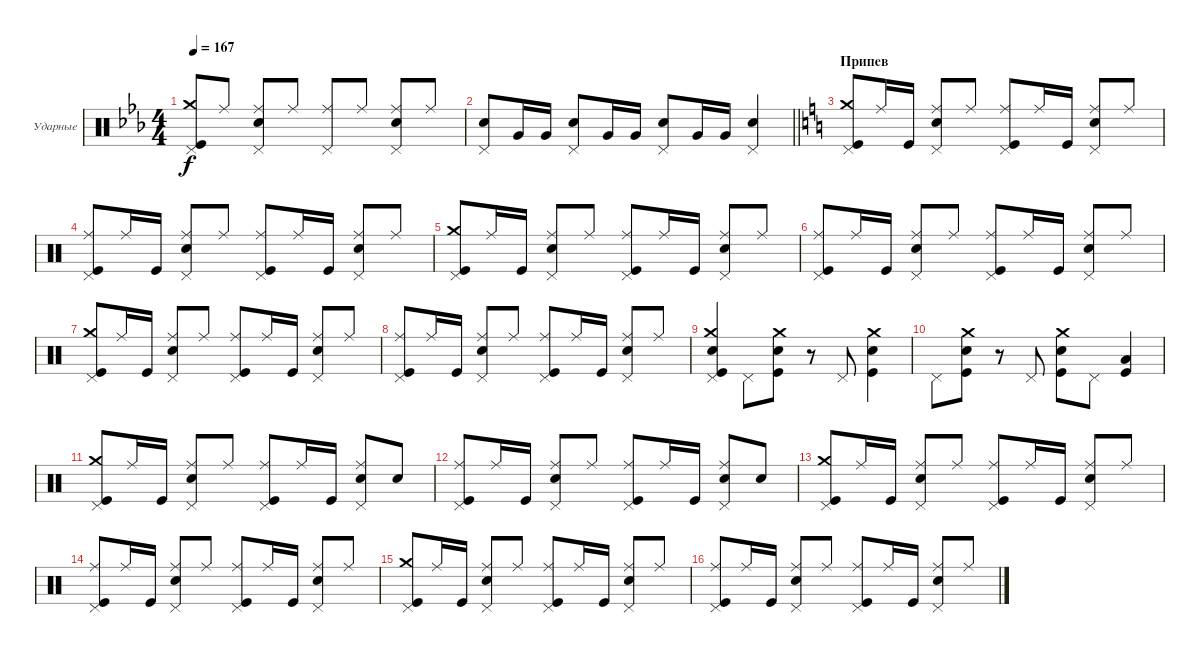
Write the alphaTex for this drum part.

\bracketExtendMode groupsimilarinstruments
\firstSystemTrackNameOrientation horizontal
\otherSystemsTrackNameOrientation horizontal
\track ("Максим Удалов" "Ударные") {instrument percussion}
\staff {score}
\articulation defaults
\ts (4 4)
\tempo 167
\clef neutral
\ks cminor
("Pedal Hi-Hat (hit)" "Crash medium (hit)" "Kick (hit)").8{dy f} "Ride (middle)".8 ("Ride (middle)" "Snare (hit) 2" "Pedal Hi-Hat (hit)").8 "Ride (middle)".8 ("Pedal Hi-Hat (hit)" "Ride (middle)").8 "Ride (middle)".8 ("Ride (middle)" "Snare (hit) 2" "Pedal Hi-Hat (hit)").8 "Ride (middle)".8 |
\barLineRight lightlight
("Pedal Hi-Hat (hit)" "Snare (hit) 2").8 "Very Low Tom (hit)".16 "Very Low Tom (hit)".16 ("Snare (hit) 2" "Pedal Hi-Hat (hit)").8 "Very Low Tom (hit)".16 "Very Low Tom (hit)".16 ("Snare (hit) 2" "Pedal Hi-Hat (hit)").8 "Very Low Tom (hit)".16 "Very Low Tom (hit)".16 ("Snare (hit) 2" "Pedal Hi-Hat (hit)").4 |
\section ("" "Припев")
\ks aminor
("Kick (hit)" "Pedal Hi-Hat (hit)" "Crash medium (hit)").8 "Ride (middle)".16 "Kick (hit)".16 ("Ride (middle)" "Snare (hit) 2" "Pedal Hi-Hat (hit)").8 "Ride (middle)".8 ("Ride (middle)" "Kick (hit)" "Pedal Hi-Hat (hit)").8 "Ride (middle)".16 "Kick (hit)".16 ("Ride (middle)" "Snare (hit) 2" "Pedal Hi-Hat (hit)").8 "Ride (middle)".8 |
("Kick (hit)" "Ride (middle)" "Pedal Hi-Hat (hit)").8 "Ride (middle)".16 "Kick (hit)".16 ("Snare (hit) 2" "Ride (middle)" "Pedal Hi-Hat (hit)").8 "Ride (middle)".8 ("Ride (middle)" "Kick (hit)" "Pedal Hi-Hat (hit)").8 "Ride (middle)".16 "Kick (hit)".16 ("Snare (hit) 2" "Ride (middle)" "Pedal Hi-Hat (hit)").8 "Ride (middle)".8 |
("Kick (hit)" "Pedal Hi-Hat (hit)" "Crash medium (hit)").8 "Ride (middle)".16 "Kick (hit)".16 ("Ride (middle)" "Snare (hit) 2" "Pedal Hi-Hat (hit)").8 "Ride (middle)".8 ("Ride (middle)" "Kick (hit)" "Pedal Hi-Hat (hit)").8 "Ride (middle)".16 "Kick (hit)".16 ("Ride (middle)" "Snare (hit) 2" "Pedal Hi-Hat (hit)").8 "Ride (middle)".8 |
("Kick (hit)" "Ride (middle)" "Pedal Hi-Hat (hit)").8 "Ride (middle)".16 "Kick (hit)".16 ("Snare (hit) 2" "Ride (middle)" "Pedal Hi-Hat (hit)").8 "Ride (middle)".8 ("Ride (middle)" "Kick (hit)" "Pedal Hi-Hat (hit)").8 "Ride (middle)".16 "Kick (hit)".16 ("Snare (hit) 2" "Ride (middle)" "Pedal Hi-Hat (hit)").8 "Ride (middle)".8 |
("Kick (hit)" "Pedal Hi-Hat (hit)" "Crash medium (hit)").8 "Ride (middle)".16 "Kick (hit)".16 ("Ride (middle)" "Snare (hit) 2" "Pedal Hi-Hat (hit)").8 "Ride (middle)".8 ("Ride (middle)" "Kick (hit)" "Pedal Hi-Hat (hit)").8 "Ride (middle)".16 "Kick (hit)".16 ("Ride (middle)" "Snare (hit) 2" "Pedal Hi-Hat (hit)").8 "Ride (middle)".8 |
("Kick (hit)" "Ride (middle)" "Pedal Hi-Hat (hit)").8 "Ride (middle)".16 "Kick (hit)".16 ("Snare (hit) 2" "Ride (middle)" "Pedal Hi-Hat (hit)").8 "Ride (middle)".8 ("Ride (middle)" "Kick (hit)" "Pedal Hi-Hat (hit)").8 "Ride (middle)".16 "Kick (hit)".16 ("Snare (hit) 2" "Ride (middle)" "Pedal Hi-Hat (hit)").8 "Ride (middle)".8 |
("Snare (hit) 2" "Crash medium (hit)" "Kick (hit)" "Pedal Hi-Hat (hit)").4 "Pedal Hi-Hat (hit)".8 ("Crash medium (hit)" "Kick (hit)" "Snare (hit) 2").8 r.8 "Pedal Hi-Hat (hit)".8 ("Crash medium (hit)" "Snare (hit) 2" "Kick (hit)").4 |
"Pedal Hi-Hat (hit)".8 ("Crash medium (hit)" "Kick (hit)" "Snare (hit) 2").8 r.8 "Pedal Hi-Hat (hit)".8 ("Kick (hit)" "Snare (hit) 2" "Crash medium (hit)").8 "Pedal Hi-Hat (hit)".8 ("Kick (hit)" "Low Tom (hit)").4 |
("Kick (hit)" "Pedal Hi-Hat (hit)" "Crash medium (hit)").8 "Ride (middle)".16 "Kick (hit)".16 ("Ride (middle)" "Snare (hit) 2" "Pedal Hi-Hat (hit)").8 "Ride (middle)".8 ("Ride (middle)" "Kick (hit)" "Pedal Hi-Hat (hit)").8 "Ride (middle)".16 "Kick (hit)".16 ("Ride (middle)" "Snare (hit) 2" "Pedal Hi-Hat (hit)").8 "Snare (hit) 2".8 |
("Kick (hit)" "Ride (middle)" "Pedal Hi-Hat (hit)").8 "Ride (middle)".16 "Kick (hit)".16 ("Snare (hit) 2" "Ride (middle)" "Pedal Hi-Hat (hit)").8 "Ride (middle)".8 ("Ride (middle)" "Kick (hit)" "Pedal Hi-Hat (hit)").8 "Ride (middle)".16 "Kick (hit)".16 ("Ride (middle)" "Snare (hit) 2" "Pedal Hi-Hat (hit)").8 "Snare (hit) 2".8 |
("Kick (hit)" "Pedal Hi-Hat (hit)" "Crash medium (hit)").8 "Ride (middle)".16 "Kick (hit)".16 ("Ride (middle)" "Snare (hit) 2" "Pedal Hi-Hat (hit)").8 "Ride (middle)".8 ("Ride (middle)" "Kick (hit)" "Pedal Hi-Hat (hit)").8 "Ride (middle)".16 "Kick (hit)".16 ("Ride (middle)" "Snare (hit) 2" "Pedal Hi-Hat (hit)").8 "Ride (middle)".8 |
("Kick (hit)" "Ride (middle)" "Pedal Hi-Hat (hit)").8 "Ride (middle)".16 "Kick (hit)".16 ("Snare (hit) 2" "Ride (middle)" "Pedal Hi-Hat (hit)").8 "Ride (middle)".8 ("Ride (middle)" "Kick (hit)" "Pedal Hi-Hat (hit)").8 "Ride (middle)".16 "Kick (hit)".16 ("Snare (hit) 2" "Ride (middle)" "Pedal Hi-Hat (hit)").8 "Ride (middle)".8 |
("Kick (hit)" "Pedal Hi-Hat (hit)" "Crash medium (hit)").8 "Ride (middle)".16 "Kick (hit)".16 ("Ride (middle)" "Snare (hit) 2" "Pedal Hi-Hat (hit)").8 "Ride (middle)".8 ("Ride (middle)" "Kick (hit)" "Pedal Hi-Hat (hit)").8 "Ride (middle)".16 "Kick (hit)".16 ("Ride (middle)" "Snare (hit) 2" "Pedal Hi-Hat (hit)").8 "Ride (middle)".8 |
("Kick (hit)" "Ride (middle)" "Pedal Hi-Hat (hit)").8 "Ride (middle)".16 "Kick (hit)".16 ("Snare (hit) 2" "Ride (middle)" "Pedal Hi-Hat (hit)").8 "Ride (middle)".8 ("Ride (middle)" "Kick (hit)" "Pedal Hi-Hat (hit)").8 "Ride (middle)".16 "Kick (hit)".16 ("Snare (hit) 2" "Ride (middle)" "Pedal Hi-Hat (hit)").8 "Ride (middle)".8
